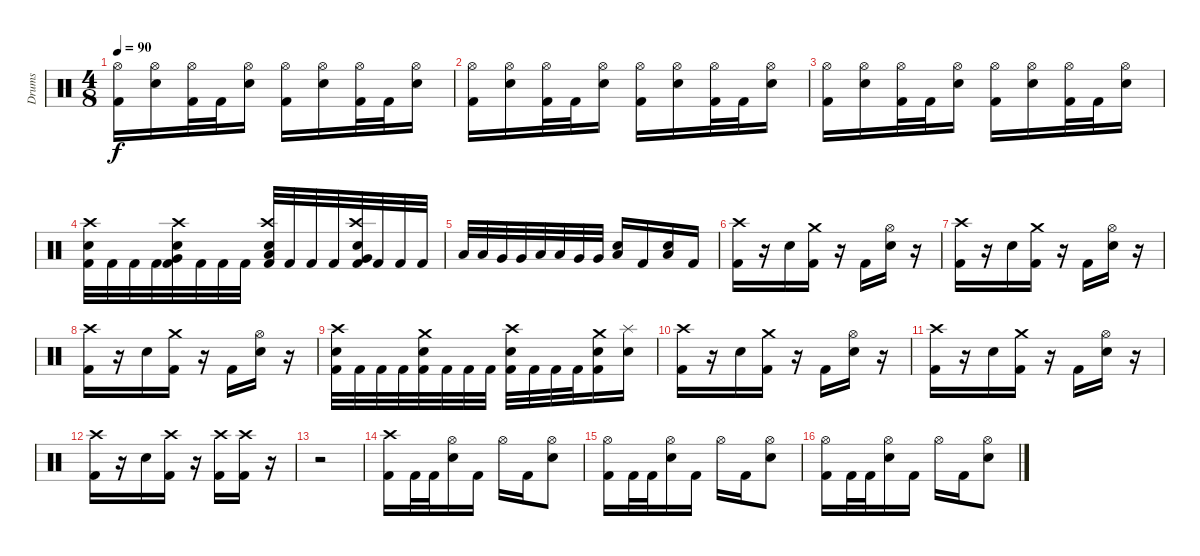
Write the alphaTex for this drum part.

\track ("Drums" "Drums") {instrument percussion}
\staff {score}
\articulation defaults
\ts (4 8)
\tempo 90
\clef neutral
\ks c
("Kick (hit) 2" "Hi-Hat (open)").16{dy f} ("Electric Snare (hit)" "Hi-Hat (open)").16 ("Kick (hit) 2" "Hi-Hat (open)").32 "Kick (hit) 2".32 ("Electric Snare (hit)" "Hi-Hat (open)").16 ("Kick (hit) 2" "Hi-Hat (open)").16 ("Electric Snare (hit)" "Hi-Hat (open)").16 ("Kick (hit) 2" "Hi-Hat (open)").32 "Kick (hit) 2".32 ("Electric Snare (hit)" "Hi-Hat (open)").16 |
("Kick (hit) 2" "Hi-Hat (open)").16 ("Electric Snare (hit)" "Hi-Hat (open)").16 ("Kick (hit) 2" "Hi-Hat (open)").32 "Kick (hit) 2".32 ("Electric Snare (hit)" "Hi-Hat (open)").16 ("Kick (hit) 2" "Hi-Hat (open)").16 ("Electric Snare (hit)" "Hi-Hat (open)").16 ("Kick (hit) 2" "Hi-Hat (open)").32 "Kick (hit) 2".32 ("Electric Snare (hit)" "Hi-Hat (open)").16 |
("Kick (hit) 2" "Hi-Hat (open)").16 ("Electric Snare (hit)" "Hi-Hat (open)").16 ("Kick (hit) 2" "Hi-Hat (open)").32 "Kick (hit) 2".32 ("Electric Snare (hit)" "Hi-Hat (open)").16 ("Kick (hit) 2" "Hi-Hat (open)").16 ("Electric Snare (hit)" "Hi-Hat (open)").16 ("Kick (hit) 2" "Hi-Hat (open)").32 "Kick (hit) 2".32 ("Electric Snare (hit)" "Hi-Hat (open)").16 |
("Kick (hit) 2" "Electric Snare (hit)" "Crash high (hit)").32 "Kick (hit) 2".32 "Kick (hit) 2".32 "Kick (hit) 2".32 ("Electric Snare (hit)" "Very Low Tom (hit)" "Kick (hit) 2" "Crash high (hit)").32 "Kick (hit) 2".32 "Kick (hit) 2".32 "Kick (hit) 2".32 ("Electric Snare (hit)" "Low Floor Tom (hit)" "Kick (hit) 2" "Crash high (hit)").32 "Kick (hit) 2".32 "Kick (hit) 2".32 "Kick (hit) 2".32 ("Electric Snare (hit)" "Very Low Tom (hit)" "Kick (hit) 2" "Crash high (hit)").32 "Kick (hit) 2".32 "Kick (hit) 2".32 "Kick (hit) 2".32 |
"Low Tom (hit)".32 "Low Tom (hit)".32 "Very Low Tom (hit)".32 "Very Low Tom (hit)".32 "Low Tom (hit)".32 "Low Tom (hit)".32 "Very Low Tom (hit)".32 "Very Low Tom (hit)".32 ("Electric Snare (hit)" "Low Floor Tom (hit)").16 "Kick (hit) 2".16 ("Electric Snare (hit)" "Low Floor Tom (hit)").16 "Kick (hit) 2".16 |
("Kick (hit) 2" "Crash high (hit)").16 r.16 "Electric Snare (hit)".16 ("Kick (hit) 2" "Crash medium (hit)").16 r.16 "Kick (hit) 2".16 ("Electric Snare (hit)" "Hi-Hat (open)").16 r.16 |
("Kick (hit) 2" "Crash high (hit)").16 r.16 "Electric Snare (hit)".16 ("Kick (hit) 2" "Crash medium (hit)").16 r.16 "Kick (hit) 2".16 ("Electric Snare (hit)" "Hi-Hat (open)").16 r.16 |
("Kick (hit) 2" "Crash high (hit)").16 r.16 "Electric Snare (hit)".16 ("Kick (hit) 2" "Crash medium (hit)").16 r.16 "Kick (hit) 2".16 ("Electric Snare (hit)" "Hi-Hat (open)").16 r.16 |
("Kick (hit) 2" "Crash high (hit)" "Electric Snare (hit)").32 "Kick (hit) 2".32 "Kick (hit) 2".32 "Kick (hit) 2".32 ("Kick (hit) 2" "Crash medium (hit)" "Electric Snare (hit)").32 "Kick (hit) 2".32 "Kick (hit) 2".32 "Kick (hit) 2".32 ("Kick (hit) 2" "Crash high (hit)" "Electric Snare (hit)").32 "Kick (hit) 2".32 "Kick (hit) 2".32 "Kick (hit) 2".32 ("Kick (hit) 2" "Crash medium (hit)" "Electric Snare (hit)").16 ("Electric Snare (hit)" "Splash (hit)").16 |
("Kick (hit) 2" "Crash high (hit)").16 r.16 "Electric Snare (hit)".16 ("Kick (hit) 2" "Crash medium (hit)").16 r.16 "Kick (hit) 2".16 ("Electric Snare (hit)" "Hi-Hat (open)").16 r.16 |
("Kick (hit) 2" "Crash high (hit)").16 r.16 "Electric Snare (hit)".16 ("Kick (hit) 2" "Crash medium (hit)").16 r.16 "Kick (hit) 2".16 ("Electric Snare (hit)" "Hi-Hat (open)").16 r.16 |
("Kick (hit) 2" "Crash high (hit)").16 r.16 "Electric Snare (hit)".16 ("Kick (hit) 2" "Crash high (hit)").16 r.16 ("Kick (hit) 2" "Crash high (hit)").16 ("Kick (hit) 2" "Crash high (hit)").16 r.16 |
r.2 |
("Crash high (hit)" "Kick (hit) 2").16 "Kick (hit) 2".32 "Kick (hit) 2".32 ("Hi-Hat (open)" "Electric Snare (hit)").16 "Kick (hit) 2".16 "Hi-Hat (open)".16 "Kick (hit) 2".16 ("Electric Snare (hit)" "Hi-Hat (open)").8 |
("Kick (hit) 2" "Hi-Hat (open)").16 "Kick (hit) 2".32 "Kick (hit) 2".32 ("Hi-Hat (open)" "Electric Snare (hit)").16 "Kick (hit) 2".16 "Hi-Hat (open)".16 "Kick (hit) 2".16 ("Electric Snare (hit)" "Hi-Hat (open)").8 |
("Kick (hit) 2" "Hi-Hat (open)").16 "Kick (hit) 2".32 "Kick (hit) 2".32 ("Hi-Hat (open)" "Electric Snare (hit)").16 "Kick (hit) 2".16 "Hi-Hat (open)".16 "Kick (hit) 2".16 ("Electric Snare (hit)" "Hi-Hat (open)").8
